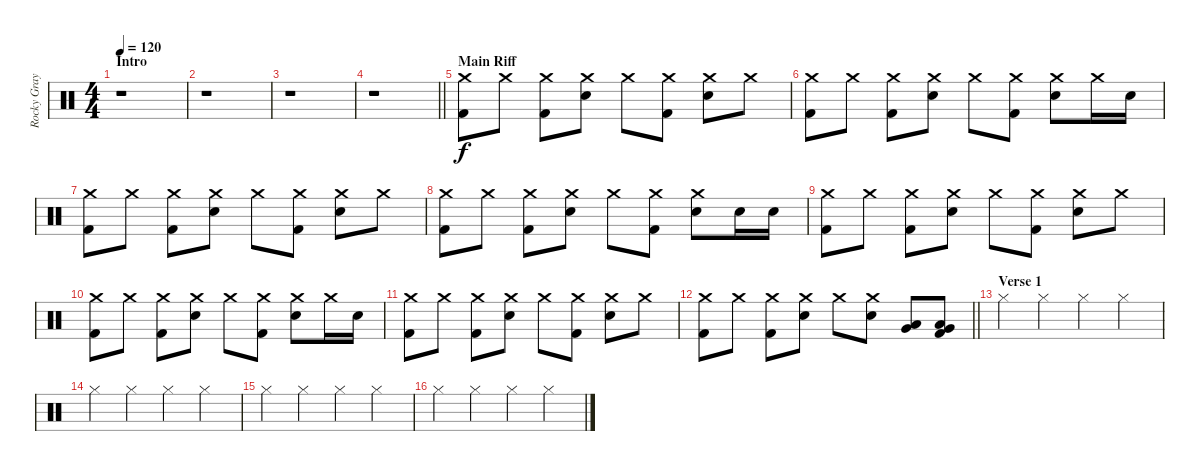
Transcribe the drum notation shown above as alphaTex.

\track ("Rocky Gray" "Rocky Gray") {instrument percussion}
\staff {score}
\articulation defaults
\ts (4 4)
\section ("" "Intro")
\tempo 120
\clef neutral
\ks c
r.1{dy f} |
r.1 |
r.1 |
\barLineRight lightlight
r.1 |
\section ("" "Main Riff")
("Crash medium (hit)" "Kick (hit) 2").8 "Crash medium (hit)".8 ("Crash medium (hit)" "Kick (hit) 2").8 ("Crash medium (hit)" "Electric Snare (hit)").8 "Crash medium (hit)".8 ("Crash medium (hit)" "Kick (hit) 2").8 ("Crash medium (hit)" "Electric Snare (hit)").8 "Crash medium (hit)".8 |
("Crash medium (hit)" "Kick (hit) 2").8 "Crash medium (hit)".8 ("Crash medium (hit)" "Kick (hit) 2").8 ("Crash medium (hit)" "Electric Snare (hit)").8 "Crash medium (hit)".8 ("Crash medium (hit)" "Kick (hit) 2").8 ("Crash medium (hit)" "Electric Snare (hit)").8 "Crash medium (hit)".16 "Electric Snare (hit)".16 |
("Crash medium (hit)" "Kick (hit) 2").8 "Crash medium (hit)".8 ("Crash medium (hit)" "Kick (hit) 2").8 ("Crash medium (hit)" "Electric Snare (hit)").8 "Crash medium (hit)".8 ("Crash medium (hit)" "Kick (hit) 2").8 ("Crash medium (hit)" "Electric Snare (hit)").8 "Crash medium (hit)".8 |
("Crash medium (hit)" "Kick (hit) 2").8 "Crash medium (hit)".8 ("Crash medium (hit)" "Kick (hit) 2").8 ("Crash medium (hit)" "Electric Snare (hit)").8 "Crash medium (hit)".8 ("Crash medium (hit)" "Kick (hit) 2").8 ("Crash medium (hit)" "Electric Snare (hit)").8 "Electric Snare (hit)".16 "Electric Snare (hit)".16 |
("Crash medium (hit)" "Kick (hit) 2").8 "Crash medium (hit)".8 ("Crash medium (hit)" "Kick (hit) 2").8 ("Crash medium (hit)" "Electric Snare (hit)").8 "Crash medium (hit)".8 ("Crash medium (hit)" "Kick (hit) 2").8 ("Crash medium (hit)" "Electric Snare (hit)").8 "Crash medium (hit)".8 |
("Crash medium (hit)" "Kick (hit) 2").8 "Crash medium (hit)".8 ("Crash medium (hit)" "Kick (hit) 2").8 ("Crash medium (hit)" "Electric Snare (hit)").8 "Crash medium (hit)".8 ("Crash medium (hit)" "Kick (hit) 2").8 ("Crash medium (hit)" "Electric Snare (hit)").8 "Crash medium (hit)".16 "Electric Snare (hit)".16 |
("Crash medium (hit)" "Kick (hit) 2").8 "Crash medium (hit)".8 ("Crash medium (hit)" "Kick (hit) 2").8 ("Crash medium (hit)" "Electric Snare (hit)").8 "Crash medium (hit)".8 ("Crash medium (hit)" "Kick (hit) 2").8 ("Crash medium (hit)" "Electric Snare (hit)").8 "Crash medium (hit)".8 |
\barLineRight lightlight
("Crash medium (hit)" "Kick (hit) 2").8 "Crash medium (hit)".8 ("Crash medium (hit)" "Kick (hit) 2").8 ("Crash medium (hit)" "Electric Snare (hit)").8 "Crash medium (hit)".8 ("Crash medium (hit)" "Electric Snare (hit)").8 ("Very Low Tom (hit)" "Low Tom (hit)").8 ("Low Floor Tom (hit)" "Very Low Tom (hit)" "Kick (hit) 2").8 |
\section ("" "Verse 1")
"Hi-Hat (closed)".4 "Hi-Hat (closed)".4 "Hi-Hat (closed)".4 "Hi-Hat (closed)".4 |
"Hi-Hat (closed)".4 "Hi-Hat (closed)".4 "Hi-Hat (closed)".4 "Hi-Hat (closed)".4 |
"Hi-Hat (closed)".4 "Hi-Hat (closed)".4 "Hi-Hat (closed)".4 "Hi-Hat (closed)".4 |
"Hi-Hat (closed)".4 "Hi-Hat (closed)".4 "Hi-Hat (closed)".4 "Hi-Hat (closed)".4
